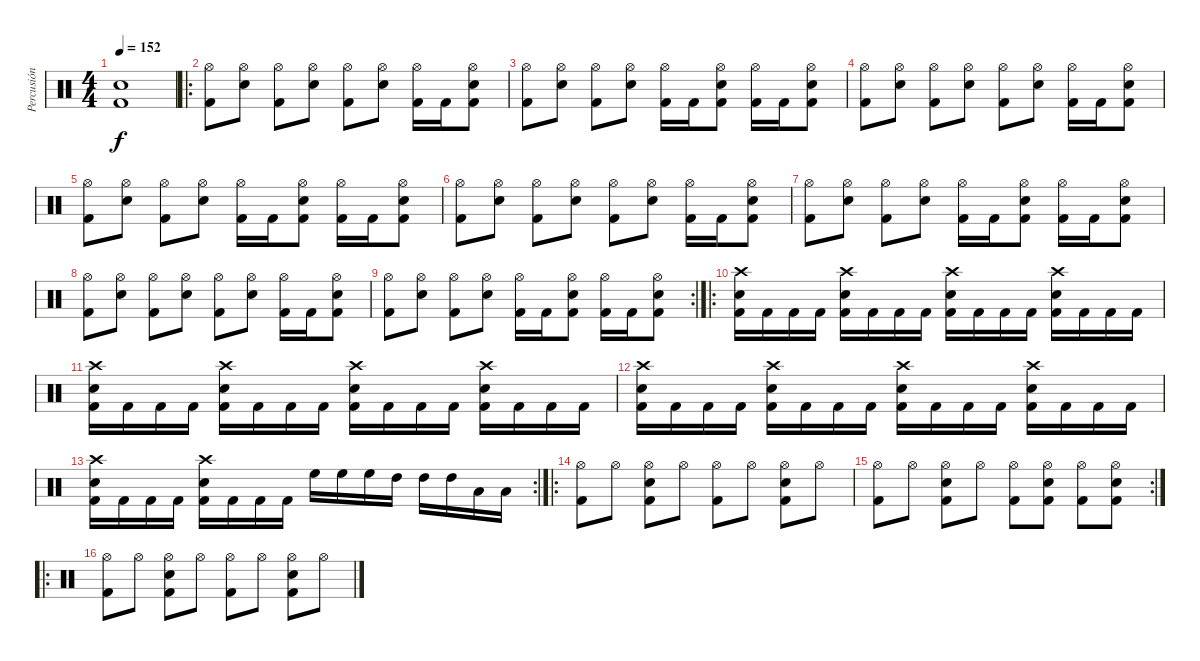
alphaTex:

\track ("Percusión" "Percusión") {instrument percussion}
\staff {score}
\articulation defaults
\ts (4 4)
\tempo 152
\clef neutral
\ks c
("Snare (hit) 2" "Kick (hit) 2").1{dy f} |
\ro
("Hi-Hat (open)" "Kick (hit) 2").8 ("Hi-Hat (open)" "Snare (hit) 2").8 ("Hi-Hat (open)" "Kick (hit) 2").8 ("Hi-Hat (open)" "Snare (hit) 2").8 ("Hi-Hat (open)" "Kick (hit) 2").8 ("Hi-Hat (open)" "Snare (hit) 2").8 ("Hi-Hat (open)" "Kick (hit) 2").16 "Kick (hit) 2".16 ("Hi-Hat (open)" "Snare (hit) 2" "Kick (hit) 2").8 |
("Hi-Hat (open)" "Kick (hit) 2").8 ("Hi-Hat (open)" "Snare (hit) 2").8 ("Hi-Hat (open)" "Kick (hit) 2").8 ("Hi-Hat (open)" "Snare (hit) 2").8 ("Hi-Hat (open)" "Kick (hit) 2").16 "Kick (hit) 2".16 ("Hi-Hat (open)" "Snare (hit) 2" "Kick (hit) 2").8 ("Hi-Hat (open)" "Kick (hit) 2").16 "Kick (hit) 2".16 ("Hi-Hat (open)" "Snare (hit) 2" "Kick (hit) 2").8 |
("Hi-Hat (open)" "Kick (hit) 2").8 ("Hi-Hat (open)" "Snare (hit) 2").8 ("Hi-Hat (open)" "Kick (hit) 2").8 ("Hi-Hat (open)" "Snare (hit) 2").8 ("Hi-Hat (open)" "Kick (hit) 2").8 ("Hi-Hat (open)" "Snare (hit) 2").8 ("Hi-Hat (open)" "Kick (hit) 2").16 "Kick (hit) 2".16 ("Hi-Hat (open)" "Snare (hit) 2" "Kick (hit) 2").8 |
("Hi-Hat (open)" "Kick (hit) 2").8 ("Hi-Hat (open)" "Snare (hit) 2").8 ("Hi-Hat (open)" "Kick (hit) 2").8 ("Hi-Hat (open)" "Snare (hit) 2").8 ("Hi-Hat (open)" "Kick (hit) 2").16 "Kick (hit) 2".16 ("Hi-Hat (open)" "Snare (hit) 2" "Kick (hit) 2").8 ("Hi-Hat (open)" "Kick (hit) 2").16 "Kick (hit) 2".16 ("Hi-Hat (open)" "Snare (hit) 2" "Kick (hit) 2").8 |
("Hi-Hat (open)" "Kick (hit) 2").8 ("Hi-Hat (open)" "Snare (hit) 2").8 ("Hi-Hat (open)" "Kick (hit) 2").8 ("Hi-Hat (open)" "Snare (hit) 2").8 ("Hi-Hat (open)" "Kick (hit) 2").8 ("Hi-Hat (open)" "Snare (hit) 2").8 ("Hi-Hat (open)" "Kick (hit) 2").16 "Kick (hit) 2".16 ("Hi-Hat (open)" "Snare (hit) 2" "Kick (hit) 2").8 |
("Hi-Hat (open)" "Kick (hit) 2").8 ("Hi-Hat (open)" "Snare (hit) 2").8 ("Hi-Hat (open)" "Kick (hit) 2").8 ("Hi-Hat (open)" "Snare (hit) 2").8 ("Hi-Hat (open)" "Kick (hit) 2").16 "Kick (hit) 2".16 ("Hi-Hat (open)" "Snare (hit) 2" "Kick (hit) 2").8 ("Hi-Hat (open)" "Kick (hit) 2").16 "Kick (hit) 2".16 ("Hi-Hat (open)" "Snare (hit) 2" "Kick (hit) 2").8 |
("Hi-Hat (open)" "Kick (hit) 2").8 ("Hi-Hat (open)" "Snare (hit) 2").8 ("Hi-Hat (open)" "Kick (hit) 2").8 ("Hi-Hat (open)" "Snare (hit) 2").8 ("Hi-Hat (open)" "Kick (hit) 2").8 ("Hi-Hat (open)" "Snare (hit) 2").8 ("Hi-Hat (open)" "Kick (hit) 2").16 "Kick (hit) 2".16 ("Hi-Hat (open)" "Snare (hit) 2" "Kick (hit) 2").8 |
\rc 2
("Hi-Hat (open)" "Kick (hit) 2").8 ("Hi-Hat (open)" "Snare (hit) 2").8 ("Hi-Hat (open)" "Kick (hit) 2").8 ("Hi-Hat (open)" "Snare (hit) 2").8 ("Hi-Hat (open)" "Kick (hit) 2").16 "Kick (hit) 2".16 ("Hi-Hat (open)" "Snare (hit) 2" "Kick (hit) 2").8 ("Hi-Hat (open)" "Kick (hit) 2").16 "Kick (hit) 2".16 ("Hi-Hat (open)" "Snare (hit) 2" "Kick (hit) 2").8 |
\ro
("Crash high (hit)" "Snare (hit) 2" "Kick (hit) 2").16 "Kick (hit) 2".16 "Kick (hit) 2".16 "Kick (hit) 2".16 ("Crash high (hit)" "Snare (hit) 2" "Kick (hit) 2").16 "Kick (hit) 2".16 "Kick (hit) 2".16 "Kick (hit) 2".16 ("Crash high (hit)" "Snare (hit) 2" "Kick (hit) 2").16 "Kick (hit) 2".16 "Kick (hit) 2".16 "Kick (hit) 2".16 ("Crash high (hit)" "Snare (hit) 2" "Kick (hit) 2").16 "Kick (hit) 2".16 "Kick (hit) 2".16 "Kick (hit) 2".16 |
("Crash high (hit)" "Snare (hit) 2" "Kick (hit) 2").16 "Kick (hit) 2".16 "Kick (hit) 2".16 "Kick (hit) 2".16 ("Crash high (hit)" "Snare (hit) 2" "Kick (hit) 2").16 "Kick (hit) 2".16 "Kick (hit) 2".16 "Kick (hit) 2".16 ("Crash high (hit)" "Snare (hit) 2" "Kick (hit) 2").16 "Kick (hit) 2".16 "Kick (hit) 2".16 "Kick (hit) 2".16 ("Crash high (hit)" "Snare (hit) 2" "Kick (hit) 2").16 "Kick (hit) 2".16 "Kick (hit) 2".16 "Kick (hit) 2".16 |
("Crash high (hit)" "Snare (hit) 2" "Kick (hit) 2").16 "Kick (hit) 2".16 "Kick (hit) 2".16 "Kick (hit) 2".16 ("Crash high (hit)" "Snare (hit) 2" "Kick (hit) 2").16 "Kick (hit) 2".16 "Kick (hit) 2".16 "Kick (hit) 2".16 ("Crash high (hit)" "Snare (hit) 2" "Kick (hit) 2").16 "Kick (hit) 2".16 "Kick (hit) 2".16 "Kick (hit) 2".16 ("Crash high (hit)" "Snare (hit) 2" "Kick (hit) 2").16 "Kick (hit) 2".16 "Kick (hit) 2".16 "Kick (hit) 2".16 |
\rc 2
("Crash high (hit)" "Snare (hit) 2" "Kick (hit) 2").16 "Kick (hit) 2".16 "Kick (hit) 2".16 "Kick (hit) 2".16 ("Crash high (hit)" "Snare (hit) 2" "Kick (hit) 2").16 "Kick (hit) 2".16 "Kick (hit) 2".16 "Kick (hit) 2".16 "High Floor Tom (hit)".16 "High Floor Tom (hit)".16 "High Floor Tom (hit)".16 "High Tom (hit)".16 "High Tom (hit)".16 "High Tom (hit)".16 "Low Floor Tom (hit)".16 "Low Floor Tom (hit)".16 |
\ro
("Hi-Hat (open)" "Kick (hit) 2").8 "Hi-Hat (open)".8 ("Hi-Hat (open)" "Snare (hit) 2" "Kick (hit) 2").8 "Hi-Hat (open)".8 ("Hi-Hat (open)" "Kick (hit) 2").8 "Hi-Hat (open)".8 ("Hi-Hat (open)" "Snare (hit) 2" "Kick (hit) 2").8 "Hi-Hat (open)".8 |
\rc 2
("Hi-Hat (open)" "Kick (hit) 2").8 "Hi-Hat (open)".8 ("Hi-Hat (open)" "Snare (hit) 2" "Kick (hit) 2").8 "Hi-Hat (open)".8 ("Hi-Hat (open)" "Kick (hit) 2").8 ("Hi-Hat (open)" "Snare (hit) 2" "Kick (hit) 2").8 ("Hi-Hat (open)" "Kick (hit) 2").8 ("Hi-Hat (open)" "Snare (hit) 2" "Kick (hit) 2").8 |
\ro
("Hi-Hat (open)" "Kick (hit) 2").8 "Hi-Hat (open)".8 ("Hi-Hat (open)" "Snare (hit) 2" "Kick (hit) 2").8 "Hi-Hat (open)".8 ("Hi-Hat (open)" "Kick (hit) 2").8 "Hi-Hat (open)".8 ("Hi-Hat (open)" "Snare (hit) 2" "Kick (hit) 2").8 "Hi-Hat (open)".8
